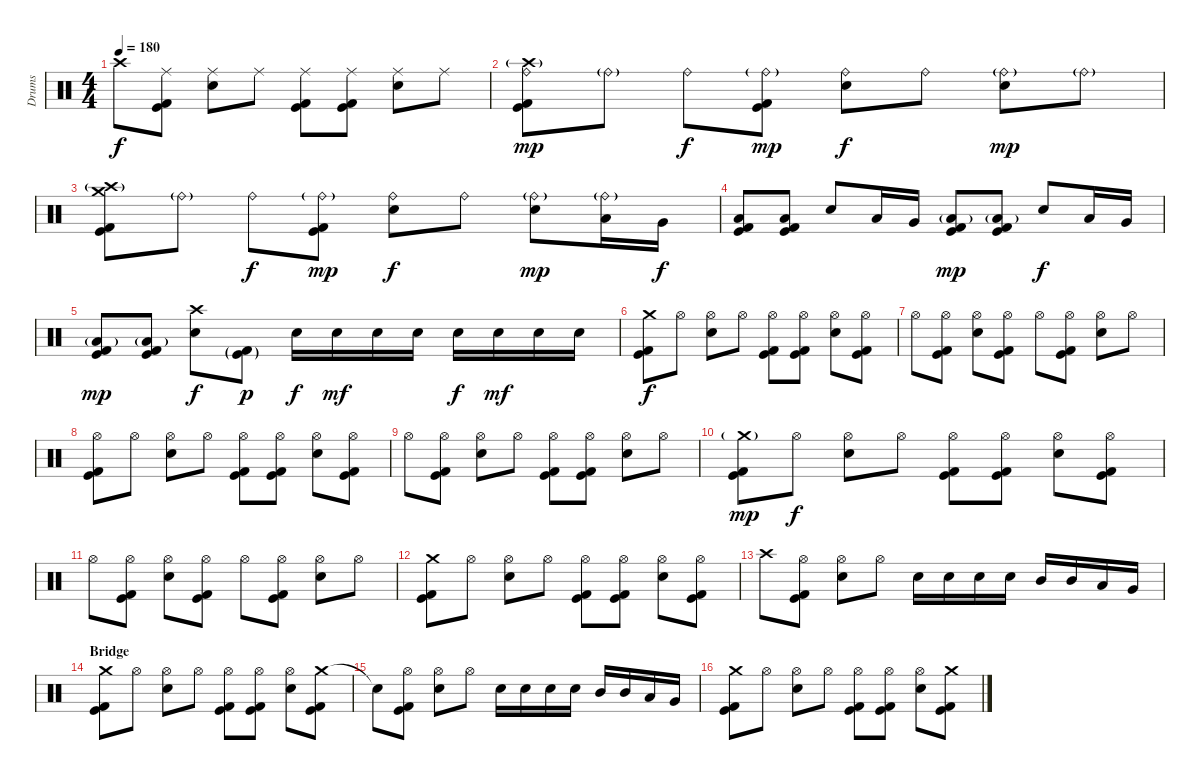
\track ("Drums" "Drums") {instrument percussion}
\staff {score}
\articulation defaults
\ts (4 4)
\tempo 180
\clef neutral
\ks c "Crash high (hit)"{t}.8{dy f}
("Ride (middle)" "Kick (hit) 2" "Kick (hit)").8 ("Ride (middle)" "Electric Snare (hit)").8 "Ride (middle)".8 ("Ride (middle)" "Kick (hit) 2" "Kick (hit)").8 ("Ride (middle)" "Kick (hit) 2" "Kick (hit)").8 ("Ride (middle)" "Electric Snare (hit)").8 "Ride (middle)".8 |
("Ride (bell)" "Crash high (hit)"{g} "Kick (hit) 2" "Kick (hit)").8{dy mp} "Ride (bell)"{g}.8 "Ride (bell)".8{dy f} ("Ride (bell)"{g} "Kick (hit) 2" "Kick (hit)").8{dy mp} ("Ride (bell)" "Electric Snare (hit)").8{dy f} "Ride (bell)".8 ("Ride (bell)"{g} "Electric Snare (hit)").8{dy mp} "Ride (bell)"{g}.8 |
("Crash medium (hit)" "Crash high (hit)"{g} "Kick (hit) 2" "Kick (hit)").8 "Ride (bell)"{g}.8 "Ride (bell)".8{dy f} ("Ride (bell)"{g} "Kick (hit) 2" "Kick (hit)").8{dy mp} ("Ride (bell)" "Electric Snare (hit)").8{dy f} "Ride (bell)".8 ("Ride (bell)"{g} "Electric Snare (hit)").8{dy mp} ("Ride (bell)"{g} "Low Tom (hit)").16 "Very Low Tom (hit)".16{dy f} |
("Low Floor Tom (hit)" "Kick (hit) 2" "Kick (hit)").8 ("Low Floor Tom (hit)" "Kick (hit) 2" "Kick (hit)").8 "Electric Snare (hit)".8 "Low Tom (hit)".16 "Very Low Tom (hit)".16 ("Low Floor Tom (hit)"{g} "Kick (hit) 2" "Kick (hit)").8{dy mp} ("Low Floor Tom (hit)"{g} "Kick (hit) 2" "Kick (hit)").8 "Electric Snare (hit)".8{dy f} "Low Tom (hit)".16 "Very Low Tom (hit)".16 |
("Low Floor Tom (hit)"{g} "Kick (hit) 2" "Kick (hit)").8{dy mp} ("Low Floor Tom (hit)"{g} "Kick (hit) 2" "Kick (hit)").8 ("Crash high (hit)" "Electric Snare (hit)").8{dy f} ("Kick (hit) 2"{g} "Kick (hit)"{g}).8{dy p} "Electric Snare (hit)".16{dy f} "Electric Snare (hit)".16{dy mf} "Electric Snare (hit)".16 "Electric Snare (hit)".16 "Electric Snare (hit)".16{dy f} "Electric Snare (hit)".16{dy mf} "Electric Snare (hit)".16 "Electric Snare (hit)".16 |
("Crash medium (hit)" "Kick (hit) 2" "Kick (hit)").8{dy f} "Hi-Hat (open)".8 ("Hi-Hat (open)" "Electric Snare (hit)").8 "Hi-Hat (open)".8 ("Hi-Hat (open)" "Kick (hit) 2" "Kick (hit)").8 ("Hi-Hat (open)" "Kick (hit) 2" "Kick (hit)").8 ("Hi-Hat (open)" "Electric Snare (hit)").8 ("Hi-Hat (open)" "Kick (hit) 2" "Kick (hit)").8 |
"Hi-Hat (open)".8 ("Hi-Hat (open)" "Kick (hit) 2" "Kick (hit)").8 ("Hi-Hat (open)" "Electric Snare (hit)").8 ("Hi-Hat (open)" "Kick (hit) 2" "Kick (hit)").8 "Hi-Hat (open)".8 ("Hi-Hat (open)" "Kick (hit) 2" "Kick (hit)").8 ("Hi-Hat (open)" "Electric Snare (hit)").8 "Hi-Hat (open)".8 |
("Hi-Hat (open)" "Kick (hit) 2" "Kick (hit)").8 "Hi-Hat (open)".8 ("Hi-Hat (open)" "Electric Snare (hit)").8 "Hi-Hat (open)".8 ("Hi-Hat (open)" "Kick (hit) 2" "Kick (hit)").8 ("Hi-Hat (open)" "Kick (hit) 2" "Kick (hit)").8 ("Hi-Hat (open)" "Electric Snare (hit)").8 ("Hi-Hat (open)" "Kick (hit) 2" "Kick (hit)").8 |
"Hi-Hat (open)".8 ("Hi-Hat (open)" "Kick (hit) 2" "Kick (hit)").8 ("Hi-Hat (open)" "Electric Snare (hit)").8 "Hi-Hat (open)".8 ("Hi-Hat (open)" "Kick (hit) 2" "Kick (hit)").8 ("Hi-Hat (open)" "Kick (hit) 2" "Kick (hit)").8 ("Hi-Hat (open)" "Electric Snare (hit)").8 "Hi-Hat (open)".8 |
("Crash medium (hit)"{g} "Kick (hit) 2" "Kick (hit)").8{dy mp} "Hi-Hat (open)".8{dy f} ("Hi-Hat (open)" "Electric Snare (hit)").8 "Hi-Hat (open)".8 ("Hi-Hat (open)" "Kick (hit) 2" "Kick (hit)").8 ("Hi-Hat (open)" "Kick (hit) 2" "Kick (hit)").8 ("Hi-Hat (open)" "Electric Snare (hit)").8 ("Hi-Hat (open)" "Kick (hit) 2" "Kick (hit)").8 |
"Hi-Hat (open)".8 ("Hi-Hat (open)" "Kick (hit) 2" "Kick (hit)").8 ("Hi-Hat (open)" "Electric Snare (hit)").8 ("Hi-Hat (open)" "Kick (hit) 2" "Kick (hit)").8 "Hi-Hat (open)".8 ("Hi-Hat (open)" "Kick (hit) 2" "Kick (hit)").8 ("Hi-Hat (open)" "Electric Snare (hit)").8 "Hi-Hat (open)".8 |
("Crash medium (hit)" "Kick (hit) 2" "Kick (hit)").8 "Hi-Hat (open)".8 ("Hi-Hat (open)" "Electric Snare (hit)").8 "Hi-Hat (open)".8 ("Hi-Hat (open)" "Kick (hit) 2" "Kick (hit)").8 ("Hi-Hat (open)" "Kick (hit) 2" "Kick (hit)").8 ("Hi-Hat (open)" "Electric Snare (hit)").8 ("Hi-Hat (open)" "Kick (hit) 2" "Kick (hit)").8 |
"Crash high (hit)".8 ("Hi-Hat (open)" "Kick (hit) 2" "Kick (hit)").8 ("Hi-Hat (open)" "Electric Snare (hit)").8 "Hi-Hat (open)".8 "Electric Snare (hit)".16 "Electric Snare (hit)".16 "Electric Snare (hit)".16 "Electric Snare (hit)".16 "Mid Tom (hit)".16 "Mid Tom (hit)".16 "Low Tom (hit)".16 "Very Low Tom (hit)".16 |
\section ("" "Bridge")
("Crash medium (hit)" "Kick (hit) 2" "Kick (hit)").8 "Hi-Hat (open)".8 ("Hi-Hat (open)" "Electric Snare (hit)").8 "Hi-Hat (open)".8 ("Hi-Hat (open)" "Kick (hit) 2" "Kick (hit)").8 ("Hi-Hat (open)" "Kick (hit) 2" "Kick (hit)").8 ("Hi-Hat (open)" "Electric Snare (hit)").8 ("Crash medium (hit)" "Kick (hit) 2" "Kick (hit)").8 |
"Snare (hit)"{t}.8 ("Hi-Hat (open)" "Kick (hit) 2" "Kick (hit)").8 ("Hi-Hat (open)" "Electric Snare (hit)").8 "Hi-Hat (open)".8 "Electric Snare (hit)".16 "Electric Snare (hit)".16 "Electric Snare (hit)".16 "Electric Snare (hit)".16 "Mid Tom (hit)".16 "Mid Tom (hit)".16 "Low Tom (hit)".16 "Very Low Tom (hit)".16 |
("Crash medium (hit)" "Kick (hit) 2" "Kick (hit)").8 "Hi-Hat (open)".8 ("Hi-Hat (open)" "Electric Snare (hit)").8 "Hi-Hat (open)".8 ("Hi-Hat (open)" "Kick (hit) 2" "Kick (hit)").8 ("Hi-Hat (open)" "Kick (hit) 2" "Kick (hit)").8 ("Hi-Hat (open)" "Electric Snare (hit)").8 ("Crash medium (hit)" "Kick (hit) 2" "Kick (hit)").8
